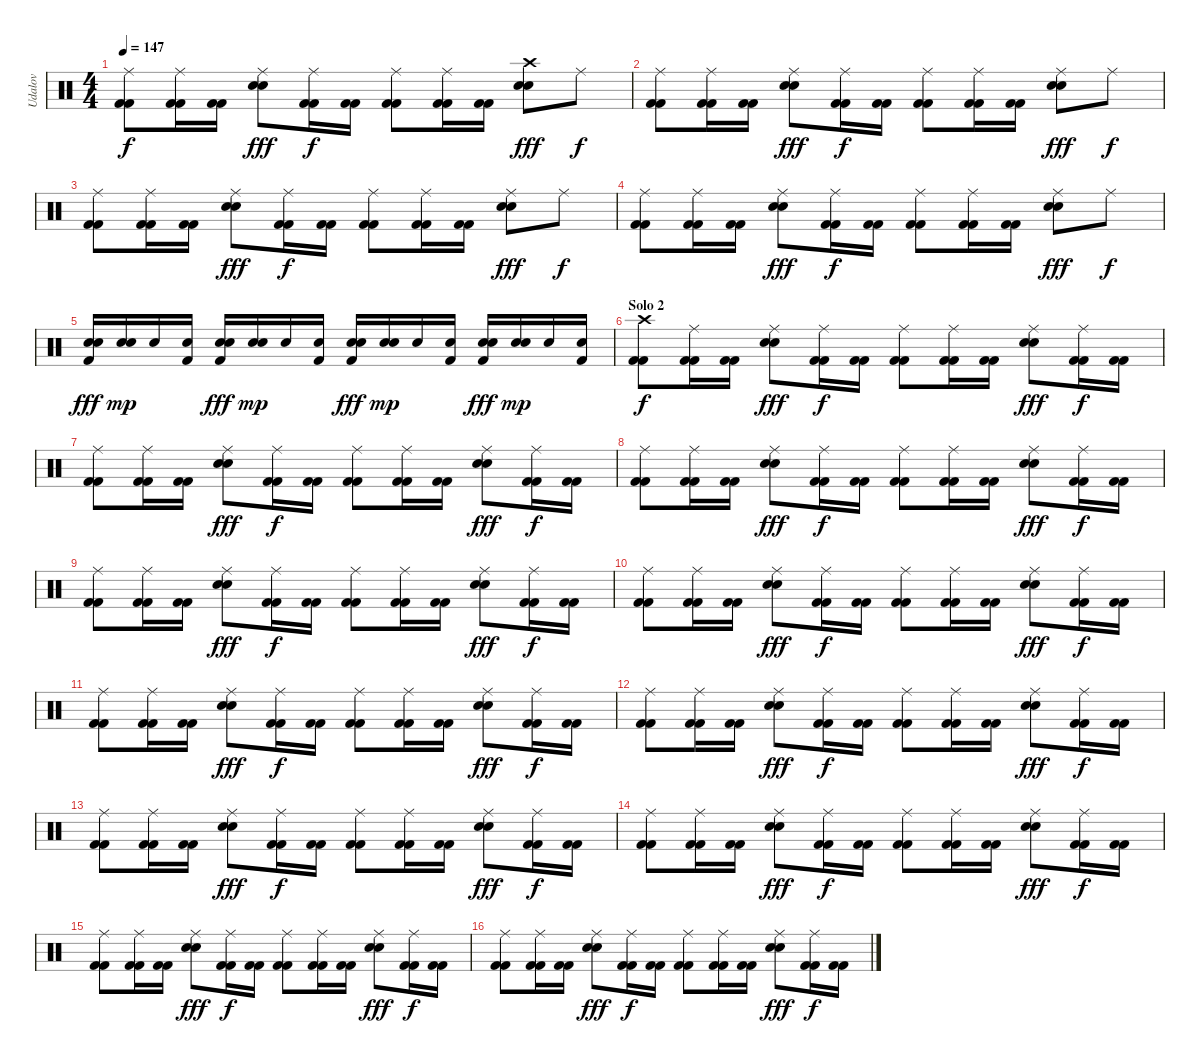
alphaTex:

\track ("Udalov" "Udalov") {instrument percussion}
\staff {score}
\articulation defaults
\ts (4 4)
\tempo 147
\clef neutral
\ks c
("Ride (middle)" "Kick (hit) 2" "Kick (hit) 2").8{dy f} ("Ride (middle)" "Kick (hit) 2" "Kick (hit) 2").16 ("Kick (hit) 2" "Kick (hit) 2").16 ("Ride (middle)" "Electric Snare (hit)" "Electric Snare (hit)").8{dy fff} ("Ride (middle)" "Kick (hit) 2" "Kick (hit) 2").16{dy f} ("Kick (hit) 2" "Kick (hit) 2").16 ("Ride (middle)" "Kick (hit) 2" "Kick (hit) 2").8 ("Ride (middle)" "Kick (hit) 2" "Kick (hit) 2").16 ("Kick (hit) 2" "Kick (hit) 2").16 ("Crash high (hit)" "Electric Snare (hit)" "Electric Snare (hit)").8{dy fff} "Ride (middle)".8{dy f} |
("Ride (middle)" "Kick (hit) 2" "Kick (hit) 2").8 ("Ride (middle)" "Kick (hit) 2" "Kick (hit) 2").16 ("Kick (hit) 2" "Kick (hit) 2").16 ("Ride (middle)" "Electric Snare (hit)" "Electric Snare (hit)").8{dy fff} ("Ride (middle)" "Kick (hit) 2" "Kick (hit) 2").16{dy f} ("Kick (hit) 2" "Kick (hit) 2").16 ("Ride (middle)" "Kick (hit) 2" "Kick (hit) 2").8 ("Ride (middle)" "Kick (hit) 2" "Kick (hit) 2").16 ("Kick (hit) 2" "Kick (hit) 2").16 ("Ride (middle)" "Electric Snare (hit)" "Electric Snare (hit)").8{dy fff} "Ride (middle)".8{dy f} |
("Ride (middle)" "Kick (hit) 2" "Kick (hit) 2").8 ("Ride (middle)" "Kick (hit) 2" "Kick (hit) 2").16 ("Kick (hit) 2" "Kick (hit) 2").16 ("Ride (middle)" "Electric Snare (hit)" "Electric Snare (hit)").8{dy fff} ("Ride (middle)" "Kick (hit) 2" "Kick (hit) 2").16{dy f} ("Kick (hit) 2" "Kick (hit) 2").16 ("Ride (middle)" "Kick (hit) 2" "Kick (hit) 2").8 ("Ride (middle)" "Kick (hit) 2" "Kick (hit) 2").16 ("Kick (hit) 2" "Kick (hit) 2").16 ("Ride (middle)" "Electric Snare (hit)" "Electric Snare (hit)").8{dy fff} "Ride (middle)".8{dy f} |
("Ride (middle)" "Kick (hit) 2" "Kick (hit) 2").8 ("Ride (middle)" "Kick (hit) 2" "Kick (hit) 2").16 ("Kick (hit) 2" "Kick (hit) 2").16 ("Ride (middle)" "Electric Snare (hit)" "Electric Snare (hit)").8{dy fff} ("Ride (middle)" "Kick (hit) 2" "Kick (hit) 2").16{dy f} ("Kick (hit) 2" "Kick (hit) 2").16 ("Ride (middle)" "Kick (hit) 2" "Kick (hit) 2").8 ("Ride (middle)" "Kick (hit) 2" "Kick (hit) 2").16 ("Kick (hit) 2" "Kick (hit) 2").16 ("Ride (middle)" "Electric Snare (hit)" "Electric Snare (hit)").8{dy fff} "Ride (middle)".8{dy f} |
("Electric Snare (hit)" "Electric Snare (hit)" "Kick (hit) 2").16{dy fff} ("Electric Snare (hit)" "Electric Snare (hit)").16{dy mp} "Electric Snare (hit)".16 ("Electric Snare (hit)" "Kick (hit) 2").16 ("Electric Snare (hit)" "Electric Snare (hit)" "Kick (hit) 2").16{dy fff} ("Electric Snare (hit)" "Electric Snare (hit)").16{dy mp} "Electric Snare (hit)".16 ("Electric Snare (hit)" "Kick (hit) 2").16 ("Electric Snare (hit)" "Electric Snare (hit)" "Kick (hit) 2").16{dy fff} ("Electric Snare (hit)" "Electric Snare (hit)").16{dy mp} "Electric Snare (hit)".16 ("Electric Snare (hit)" "Kick (hit) 2").16 ("Electric Snare (hit)" "Electric Snare (hit)" "Kick (hit) 2").16{dy fff} ("Electric Snare (hit)" "Electric Snare (hit)").16{dy mp} "Electric Snare (hit)".16 ("Electric Snare (hit)" "Kick (hit) 2").16 |
\section ("" "Solo 2")
("Crash high (hit)" "Kick (hit) 2" "Kick (hit) 2").8{dy f} ("Ride (middle)" "Kick (hit) 2" "Kick (hit) 2").16 ("Kick (hit) 2" "Kick (hit) 2").16 ("Ride (middle)" "Electric Snare (hit)" "Electric Snare (hit)").8{dy fff} ("Ride (middle)" "Kick (hit) 2" "Kick (hit) 2").16{dy f} ("Kick (hit) 2" "Kick (hit) 2").16 ("Ride (middle)" "Kick (hit) 2" "Kick (hit) 2").8 ("Ride (middle)" "Kick (hit) 2" "Kick (hit) 2").16 ("Kick (hit) 2" "Kick (hit) 2").16 ("Ride (middle)" "Electric Snare (hit)" "Electric Snare (hit)").8{dy fff} ("Ride (middle)" "Kick (hit) 2" "Kick (hit) 2").16{dy f} ("Kick (hit) 2" "Kick (hit) 2").16 |
("Ride (middle)" "Kick (hit) 2" "Kick (hit) 2").8 ("Ride (middle)" "Kick (hit) 2" "Kick (hit) 2").16 ("Kick (hit) 2" "Kick (hit) 2").16 ("Ride (middle)" "Electric Snare (hit)" "Electric Snare (hit)").8{dy fff} ("Ride (middle)" "Kick (hit) 2" "Kick (hit) 2").16{dy f} ("Kick (hit) 2" "Kick (hit) 2").16 ("Ride (middle)" "Kick (hit) 2" "Kick (hit) 2").8 ("Ride (middle)" "Kick (hit) 2" "Kick (hit) 2").16 ("Kick (hit) 2" "Kick (hit) 2").16 ("Ride (middle)" "Electric Snare (hit)" "Electric Snare (hit)").8{dy fff} ("Ride (middle)" "Kick (hit) 2" "Kick (hit) 2").16{dy f} ("Kick (hit) 2" "Kick (hit) 2").16 |
("Ride (middle)" "Kick (hit) 2" "Kick (hit) 2").8 ("Ride (middle)" "Kick (hit) 2" "Kick (hit) 2").16 ("Kick (hit) 2" "Kick (hit) 2").16 ("Ride (middle)" "Electric Snare (hit)" "Electric Snare (hit)").8{dy fff} ("Ride (middle)" "Kick (hit) 2" "Kick (hit) 2").16{dy f} ("Kick (hit) 2" "Kick (hit) 2").16 ("Ride (middle)" "Kick (hit) 2" "Kick (hit) 2").8 ("Ride (middle)" "Kick (hit) 2" "Kick (hit) 2").16 ("Kick (hit) 2" "Kick (hit) 2").16 ("Ride (middle)" "Electric Snare (hit)" "Electric Snare (hit)").8{dy fff} ("Ride (middle)" "Kick (hit) 2" "Kick (hit) 2").16{dy f} ("Kick (hit) 2" "Kick (hit) 2").16 |
("Ride (middle)" "Kick (hit) 2" "Kick (hit) 2").8 ("Ride (middle)" "Kick (hit) 2" "Kick (hit) 2").16 ("Kick (hit) 2" "Kick (hit) 2").16 ("Ride (middle)" "Electric Snare (hit)" "Electric Snare (hit)").8{dy fff} ("Ride (middle)" "Kick (hit) 2" "Kick (hit) 2").16{dy f} ("Kick (hit) 2" "Kick (hit) 2").16 ("Ride (middle)" "Kick (hit) 2" "Kick (hit) 2").8 ("Ride (middle)" "Kick (hit) 2" "Kick (hit) 2").16 ("Kick (hit) 2" "Kick (hit) 2").16 ("Ride (middle)" "Electric Snare (hit)" "Electric Snare (hit)").8{dy fff} ("Ride (middle)" "Kick (hit) 2" "Kick (hit) 2").16{dy f} ("Kick (hit) 2" "Kick (hit) 2").16 |
("Ride (middle)" "Kick (hit) 2" "Kick (hit) 2").8 ("Ride (middle)" "Kick (hit) 2" "Kick (hit) 2").16 ("Kick (hit) 2" "Kick (hit) 2").16 ("Ride (middle)" "Electric Snare (hit)" "Electric Snare (hit)").8{dy fff} ("Ride (middle)" "Kick (hit) 2" "Kick (hit) 2").16{dy f} ("Kick (hit) 2" "Kick (hit) 2").16 ("Ride (middle)" "Kick (hit) 2" "Kick (hit) 2").8 ("Ride (middle)" "Kick (hit) 2" "Kick (hit) 2").16 ("Kick (hit) 2" "Kick (hit) 2").16 ("Ride (middle)" "Electric Snare (hit)" "Electric Snare (hit)").8{dy fff} ("Ride (middle)" "Kick (hit) 2" "Kick (hit) 2").16{dy f} ("Kick (hit) 2" "Kick (hit) 2").16 |
("Ride (middle)" "Kick (hit) 2" "Kick (hit) 2").8 ("Ride (middle)" "Kick (hit) 2" "Kick (hit) 2").16 ("Kick (hit) 2" "Kick (hit) 2").16 ("Ride (middle)" "Electric Snare (hit)" "Electric Snare (hit)").8{dy fff} ("Ride (middle)" "Kick (hit) 2" "Kick (hit) 2").16{dy f} ("Kick (hit) 2" "Kick (hit) 2").16 ("Ride (middle)" "Kick (hit) 2" "Kick (hit) 2").8 ("Ride (middle)" "Kick (hit) 2" "Kick (hit) 2").16 ("Kick (hit) 2" "Kick (hit) 2").16 ("Ride (middle)" "Electric Snare (hit)" "Electric Snare (hit)").8{dy fff} ("Ride (middle)" "Kick (hit) 2" "Kick (hit) 2").16{dy f} ("Kick (hit) 2" "Kick (hit) 2").16 |
("Ride (middle)" "Kick (hit) 2" "Kick (hit) 2").8 ("Ride (middle)" "Kick (hit) 2" "Kick (hit) 2").16 ("Kick (hit) 2" "Kick (hit) 2").16 ("Ride (middle)" "Electric Snare (hit)" "Electric Snare (hit)").8{dy fff} ("Ride (middle)" "Kick (hit) 2" "Kick (hit) 2").16{dy f} ("Kick (hit) 2" "Kick (hit) 2").16 ("Ride (middle)" "Kick (hit) 2" "Kick (hit) 2").8 ("Ride (middle)" "Kick (hit) 2" "Kick (hit) 2").16 ("Kick (hit) 2" "Kick (hit) 2").16 ("Ride (middle)" "Electric Snare (hit)" "Electric Snare (hit)").8{dy fff} ("Ride (middle)" "Kick (hit) 2" "Kick (hit) 2").16{dy f} ("Kick (hit) 2" "Kick (hit) 2").16 |
("Ride (middle)" "Kick (hit) 2" "Kick (hit) 2").8 ("Ride (middle)" "Kick (hit) 2" "Kick (hit) 2").16 ("Kick (hit) 2" "Kick (hit) 2").16 ("Ride (middle)" "Electric Snare (hit)" "Electric Snare (hit)").8{dy fff} ("Ride (middle)" "Kick (hit) 2" "Kick (hit) 2").16{dy f} ("Kick (hit) 2" "Kick (hit) 2").16 ("Ride (middle)" "Kick (hit) 2" "Kick (hit) 2").8 ("Ride (middle)" "Kick (hit) 2" "Kick (hit) 2").16 ("Kick (hit) 2" "Kick (hit) 2").16 ("Ride (middle)" "Electric Snare (hit)" "Electric Snare (hit)").8{dy fff} ("Ride (middle)" "Kick (hit) 2" "Kick (hit) 2").16{dy f} ("Kick (hit) 2" "Kick (hit) 2").16 |
("Ride (middle)" "Kick (hit) 2" "Kick (hit) 2").8 ("Ride (middle)" "Kick (hit) 2" "Kick (hit) 2").16 ("Kick (hit) 2" "Kick (hit) 2").16 ("Ride (middle)" "Electric Snare (hit)" "Electric Snare (hit)").8{dy fff} ("Ride (middle)" "Kick (hit) 2" "Kick (hit) 2").16{dy f} ("Kick (hit) 2" "Kick (hit) 2").16 ("Ride (middle)" "Kick (hit) 2" "Kick (hit) 2").8 ("Ride (middle)" "Kick (hit) 2" "Kick (hit) 2").16 ("Kick (hit) 2" "Kick (hit) 2").16 ("Ride (middle)" "Electric Snare (hit)" "Electric Snare (hit)").8{dy fff} ("Ride (middle)" "Kick (hit) 2" "Kick (hit) 2").16{dy f} ("Kick (hit) 2" "Kick (hit) 2").16 |
("Ride (middle)" "Kick (hit) 2" "Kick (hit) 2").8 ("Ride (middle)" "Kick (hit) 2" "Kick (hit) 2").16 ("Kick (hit) 2" "Kick (hit) 2").16 ("Ride (middle)" "Electric Snare (hit)" "Electric Snare (hit)").8{dy fff} ("Ride (middle)" "Kick (hit) 2" "Kick (hit) 2").16{dy f} ("Kick (hit) 2" "Kick (hit) 2").16 ("Ride (middle)" "Kick (hit) 2" "Kick (hit) 2").8 ("Ride (middle)" "Kick (hit) 2" "Kick (hit) 2").16 ("Kick (hit) 2" "Kick (hit) 2").16 ("Ride (middle)" "Electric Snare (hit)" "Electric Snare (hit)").8{dy fff} ("Ride (middle)" "Kick (hit) 2" "Kick (hit) 2").16{dy f} ("Kick (hit) 2" "Kick (hit) 2").16 |
("Ride (middle)" "Kick (hit) 2" "Kick (hit) 2").8 ("Ride (middle)" "Kick (hit) 2" "Kick (hit) 2").16 ("Kick (hit) 2" "Kick (hit) 2").16 ("Ride (middle)" "Electric Snare (hit)" "Electric Snare (hit)").8{dy fff} ("Ride (middle)" "Kick (hit) 2" "Kick (hit) 2").16{dy f} ("Kick (hit) 2" "Kick (hit) 2").16 ("Ride (middle)" "Kick (hit) 2" "Kick (hit) 2").8 ("Ride (middle)" "Kick (hit) 2" "Kick (hit) 2").16 ("Kick (hit) 2" "Kick (hit) 2").16 ("Ride (middle)" "Electric Snare (hit)" "Electric Snare (hit)").8{dy fff} ("Ride (middle)" "Kick (hit) 2" "Kick (hit) 2").16{dy f} ("Kick (hit) 2" "Kick (hit) 2").16
